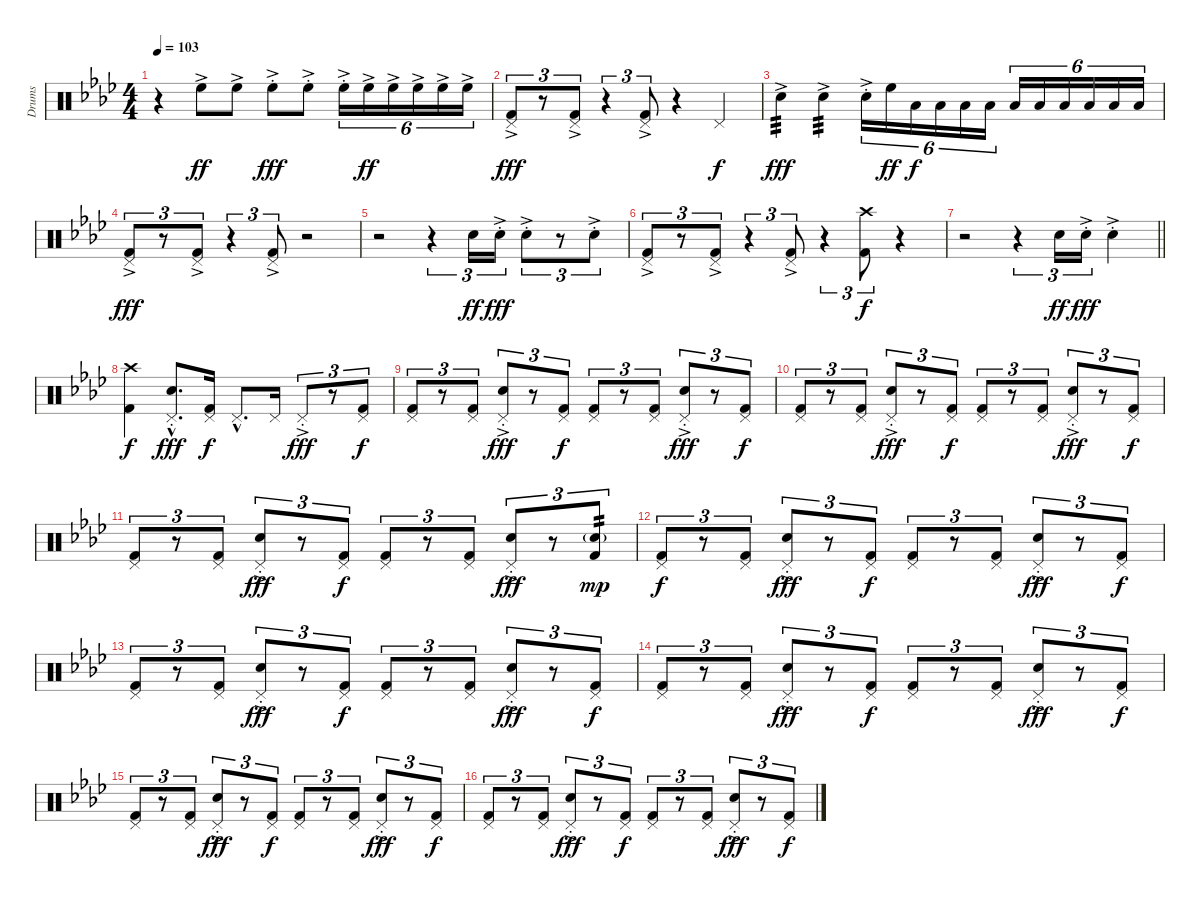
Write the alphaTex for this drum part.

\track ("Drums" "Drums") {instrument percussion}
\staff {score}
\articulation defaults
\ts (4 4)
\tempo 103
\clef neutral
\ks ab
r.4{dy f} "High Floor Tom (hit)"{ac}.8{dy ff} "High Floor Tom (hit)"{ac}.8 "High Floor Tom (hit)"{ac st}.8{dy fff} "High Floor Tom (hit)"{ac st}.8 "High Floor Tom (hit)"{ac st}.16{tu (6 4)} "High Floor Tom (hit)"{ac}.16{tu (6 4) dy ff} "High Floor Tom (hit)"{ac}.16{tu (6 4)} "High Floor Tom (hit)"{ac}.16{tu (6 4)} "High Floor Tom (hit)"{ac}.16{tu (6 4)} "High Floor Tom (hit)"{ac}.16{tu (6 4)} |
("Pedal Hi-Hat (hit)"{ac} "Kick (hit) 2"{ac}).8{tu (3 2) dy fff} r.8{tu (3 2)} ("Pedal Hi-Hat (hit)"{ac} "Kick (hit) 2"{ac}).8{tu (3 2)} r.4{tu (3 2)} ("Pedal Hi-Hat (hit)"{ac} "Kick (hit) 2"{ac}).8{tu (3 2)} r.4 "Pedal Hi-Hat (hit)".4{dy f} |
"Snare (hit) 2"{ac}.4{tp 3 dy fff} "Snare (hit) 2"{ac}.4{tp 3} "Snare (hit) 2"{ac st}.16{tu (6 4)} "High Floor Tom (hit)".16{tu (6 4) dy ff} "Low Tom (hit)".16{tu (6 4) dy f} "Low Tom (hit)".16{tu (6 4)} "Low Tom (hit)".16{tu (6 4)} "Low Tom (hit)".16{tu (6 4)} "Low Tom (hit)".16{tu (6 4)} "Low Tom (hit)".16{tu (6 4)} "Low Tom (hit)".16{tu (6 4)} "Low Tom (hit)".16{tu (6 4)} "Low Tom (hit)".16{tu (6 4)} "Low Tom (hit)".16{tu (6 4)} |
("Pedal Hi-Hat (hit)"{ac} "Kick (hit) 2"{ac}).8{tu (3 2) dy fff} r.8{tu (3 2)} ("Pedal Hi-Hat (hit)"{ac} "Kick (hit) 2"{ac}).8{tu (3 2)} r.4{tu (3 2)} ("Pedal Hi-Hat (hit)"{ac} "Kick (hit) 2"{ac}).8{tu (3 2)} r.2 |
r.2 r.4{tu (3 2)} "Snare (hit) 2".16{tu (3 2) dy ff} "Snare (hit) 2"{ac st}.16{tu (3 2) dy fff} "Snare (hit) 2"{ac st}.8{tu (3 2)} r.8{tu (3 2)} "Snare (hit) 2"{ac st}.8{tu (3 2)} |
("Pedal Hi-Hat (hit)"{ac} "Kick (hit) 2"{ac}).8{tu (3 2)} r.8{tu (3 2)} ("Pedal Hi-Hat (hit)"{ac} "Kick (hit) 2"{ac}).8{tu (3 2)} r.4{tu (3 2)} ("Pedal Hi-Hat (hit)"{ac} "Kick (hit) 2"{ac}).8{tu (3 2)} r.4{tu (3 2)} ("Crash high (hit)" "Kick (hit) 2").8{tu (3 2) dy f} r.4 |
\barLineRight lightlight
r.2 r.4{tu (3 2)} "Snare (hit) 2".16{tu (3 2) dy ff} "Snare (hit) 2"{ac st}.16{tu (3 2) dy fff} "Snare (hit) 2"{ac st}.4 |
("Crash high (hit)" "Kick (hit) 2").4{dy f} ("Pedal Hi-Hat (hit)"{hac st} "Snare (hit) 2"{hac st}).8{d dy fff} ("Pedal Hi-Hat (hit)" "Kick (hit) 2").16{dy f} "Pedal Hi-Hat (hit)"{hac}.8{d} "Pedal Hi-Hat (hit)".16 "Pedal Hi-Hat (hit)"{ac st}.8{tu (3 2) dy fff} r.8{tu (3 2)} ("Pedal Hi-Hat (hit)" "Kick (hit) 2").8{tu (3 2) dy f} |
("Pedal Hi-Hat (hit)" "Kick (hit) 2").8{tu (3 2)} r.8{tu (3 2)} ("Pedal Hi-Hat (hit)" "Kick (hit) 2").8{tu (3 2)} ("Pedal Hi-Hat (hit)"{ac st} "Snare (hit) 2"{ac st}).8{tu (3 2) dy fff} r.8{tu (3 2)} ("Pedal Hi-Hat (hit)" "Kick (hit) 2").8{tu (3 2) dy f} ("Pedal Hi-Hat (hit)" "Kick (hit) 2").8{tu (3 2)} r.8{tu (3 2)} ("Pedal Hi-Hat (hit)" "Kick (hit) 2").8{tu (3 2)} ("Pedal Hi-Hat (hit)"{ac st} "Snare (hit) 2"{ac st}).8{tu (3 2) dy fff} r.8{tu (3 2)} ("Pedal Hi-Hat (hit)" "Kick (hit) 2").8{tu (3 2) dy f} |
("Pedal Hi-Hat (hit)" "Kick (hit) 2").8{tu (3 2)} r.8{tu (3 2)} ("Pedal Hi-Hat (hit)" "Kick (hit) 2").8{tu (3 2)} ("Pedal Hi-Hat (hit)"{ac st} "Snare (hit) 2"{ac st}).8{tu (3 2) dy fff} r.8{tu (3 2)} ("Pedal Hi-Hat (hit)" "Kick (hit) 2").8{tu (3 2) dy f} ("Pedal Hi-Hat (hit)" "Kick (hit) 2").8{tu (3 2)} r.8{tu (3 2)} ("Pedal Hi-Hat (hit)" "Kick (hit) 2").8{tu (3 2)} ("Pedal Hi-Hat (hit)"{ac st} "Snare (hit) 2"{ac st}).8{tu (3 2) dy fff} r.8{tu (3 2)} ("Pedal Hi-Hat (hit)" "Kick (hit) 2").8{tu (3 2) dy f} |
("Pedal Hi-Hat (hit)" "Kick (hit) 2").8{tu (3 2)} r.8{tu (3 2)} ("Pedal Hi-Hat (hit)" "Kick (hit) 2").8{tu (3 2)} ("Pedal Hi-Hat (hit)"{ac st} "Snare (hit) 2"{ac st}).8{tu (3 2) dy fff} r.8{tu (3 2)} ("Pedal Hi-Hat (hit)" "Kick (hit) 2").8{tu (3 2) dy f} ("Pedal Hi-Hat (hit)" "Kick (hit) 2").8{tu (3 2)} r.8{tu (3 2)} ("Pedal Hi-Hat (hit)" "Kick (hit) 2").8{tu (3 2)} ("Pedal Hi-Hat (hit)"{ac st} "Snare (hit) 2"{ac st}).8{tu (3 2) dy fff} r.8{tu (3 2)} ("Snare (hit) 2"{g} "Kick (hit) 2").8{tu (3 2) tp 2 dy mp} |
("Pedal Hi-Hat (hit)" "Kick (hit) 2").8{tu (3 2) dy f} r.8{tu (3 2)} ("Pedal Hi-Hat (hit)" "Kick (hit) 2").8{tu (3 2)} ("Pedal Hi-Hat (hit)"{ac st} "Snare (hit) 2"{ac st}).8{tu (3 2) dy fff} r.8{tu (3 2)} ("Pedal Hi-Hat (hit)" "Kick (hit) 2").8{tu (3 2) dy f} ("Pedal Hi-Hat (hit)" "Kick (hit) 2").8{tu (3 2)} r.8{tu (3 2)} ("Pedal Hi-Hat (hit)" "Kick (hit) 2").8{tu (3 2)} ("Pedal Hi-Hat (hit)"{ac st} "Snare (hit) 2"{ac st}).8{tu (3 2) dy fff} r.8{tu (3 2)} ("Pedal Hi-Hat (hit)" "Kick (hit) 2").8{tu (3 2) dy f} |
("Pedal Hi-Hat (hit)" "Kick (hit) 2").8{tu (3 2)} r.8{tu (3 2)} ("Pedal Hi-Hat (hit)" "Kick (hit) 2").8{tu (3 2)} ("Pedal Hi-Hat (hit)"{ac st} "Snare (hit) 2"{ac st}).8{tu (3 2) dy fff} r.8{tu (3 2)} ("Pedal Hi-Hat (hit)" "Kick (hit) 2").8{tu (3 2) dy f} ("Pedal Hi-Hat (hit)" "Kick (hit) 2").8{tu (3 2)} r.8{tu (3 2)} ("Pedal Hi-Hat (hit)" "Kick (hit) 2").8{tu (3 2)} ("Pedal Hi-Hat (hit)"{ac st} "Snare (hit) 2"{ac st}).8{tu (3 2) dy fff} r.8{tu (3 2)} ("Pedal Hi-Hat (hit)" "Kick (hit) 2").8{tu (3 2) dy f} |
("Pedal Hi-Hat (hit)" "Kick (hit) 2").8{tu (3 2)} r.8{tu (3 2)} ("Pedal Hi-Hat (hit)" "Kick (hit) 2").8{tu (3 2)} ("Pedal Hi-Hat (hit)"{ac st} "Snare (hit) 2"{ac st}).8{tu (3 2) dy fff} r.8{tu (3 2)} ("Pedal Hi-Hat (hit)" "Kick (hit) 2").8{tu (3 2) dy f} ("Pedal Hi-Hat (hit)" "Kick (hit) 2").8{tu (3 2)} r.8{tu (3 2)} ("Pedal Hi-Hat (hit)" "Kick (hit) 2").8{tu (3 2)} ("Pedal Hi-Hat (hit)"{ac st} "Snare (hit) 2"{ac st}).8{tu (3 2) dy fff} r.8{tu (3 2)} ("Pedal Hi-Hat (hit)" "Kick (hit) 2").8{tu (3 2) dy f} |
("Pedal Hi-Hat (hit)" "Kick (hit) 2").8{tu (3 2)} r.8{tu (3 2)} ("Pedal Hi-Hat (hit)" "Kick (hit) 2").8{tu (3 2)} ("Pedal Hi-Hat (hit)"{ac st} "Snare (hit) 2"{ac st}).8{tu (3 2) dy fff} r.8{tu (3 2)} ("Pedal Hi-Hat (hit)" "Kick (hit) 2").8{tu (3 2) dy f} ("Pedal Hi-Hat (hit)" "Kick (hit) 2").8{tu (3 2)} r.8{tu (3 2)} ("Pedal Hi-Hat (hit)" "Kick (hit) 2").8{tu (3 2)} ("Pedal Hi-Hat (hit)"{ac st} "Snare (hit) 2"{ac st}).8{tu (3 2) dy fff} r.8{tu (3 2)} ("Pedal Hi-Hat (hit)" "Kick (hit) 2").8{tu (3 2) dy f} |
("Pedal Hi-Hat (hit)" "Kick (hit) 2").8{tu (3 2)} r.8{tu (3 2)} ("Pedal Hi-Hat (hit)" "Kick (hit) 2").8{tu (3 2)} ("Pedal Hi-Hat (hit)"{ac st} "Snare (hit) 2"{ac st}).8{tu (3 2) dy fff} r.8{tu (3 2)} ("Pedal Hi-Hat (hit)" "Kick (hit) 2").8{tu (3 2) dy f} ("Pedal Hi-Hat (hit)" "Kick (hit) 2").8{tu (3 2)} r.8{tu (3 2)} ("Pedal Hi-Hat (hit)" "Kick (hit) 2").8{tu (3 2)} ("Pedal Hi-Hat (hit)"{ac st} "Snare (hit) 2"{ac st}).8{tu (3 2) dy fff} r.8{tu (3 2)} ("Pedal Hi-Hat (hit)" "Kick (hit) 2").8{tu (3 2) dy f}
